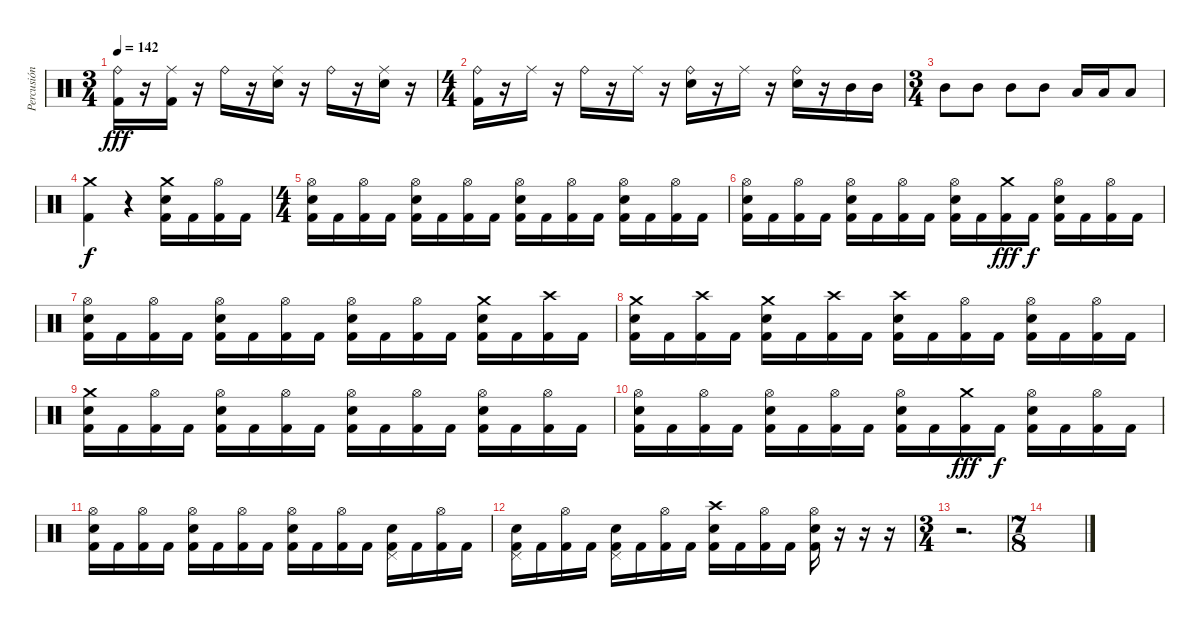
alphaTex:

\track ("Percusión" "Percusión") {instrument percussion}
\staff {score}
\articulation defaults
\ts (3 4)
\tempo 142
\clef neutral
\ks c
("Ride (bell)" "Kick (hit) 2").16{dy fff} r.16 ("Ride (middle)" "Kick (hit) 2").16 r.16 "Ride (bell)".16 r.16 ("Ride (middle)" "Electric Snare (hit)").16 r.16 "Ride (bell)".16 r.16 ("Ride (middle)" "Electric Snare (hit)").16 r.16 |
\ts (4 4)
("Ride (bell)" "Kick (hit) 2").16 r.16 "Ride (middle)".16 r.16 "Ride (bell)".16 r.16 "Ride (middle)".16 r.16 ("Ride (bell)" "Electric Snare (hit)").16 r.16 "Ride (middle)".16 r.16 ("Ride (bell)" "Electric Snare (hit)").16 r.16 "Mid Tom (hit)".16 "Mid Tom (hit)".16 |
\ts (3 4)
"Mid Tom (hit)".8 "Mid Tom (hit)".8 "Mid Tom (hit)".8 "Mid Tom (hit)".8 "Low Tom (hit)".16 "Low Tom (hit)".16 "Low Tom (hit)".8 |
("Crash medium (hit)" "Kick (hit) 2").4{dy f} r.4 ("Crash medium (hit)" "Electric Snare (hit)" "Kick (hit) 2").16 "Kick (hit) 2".16 ("Hi-Hat (open)" "Kick (hit) 2").16 "Kick (hit) 2".16 |
\ts (4 4)
("Hi-Hat (open)" "Electric Snare (hit)" "Kick (hit) 2").16 "Kick (hit) 2".16 ("Hi-Hat (open)" "Kick (hit) 2").16 "Kick (hit) 2".16 ("Hi-Hat (open)" "Electric Snare (hit)" "Kick (hit) 2").16 "Kick (hit) 2".16 ("Hi-Hat (open)" "Kick (hit) 2").16 "Kick (hit) 2".16 ("Hi-Hat (open)" "Electric Snare (hit)" "Kick (hit) 2").16 "Kick (hit) 2".16 ("Hi-Hat (open)" "Kick (hit) 2").16 "Kick (hit) 2".16 ("Hi-Hat (open)" "Electric Snare (hit)" "Kick (hit) 2").16 "Kick (hit) 2".16 ("Hi-Hat (open)" "Kick (hit) 2").16 "Kick (hit) 2".16 |
("Hi-Hat (open)" "Electric Snare (hit)" "Kick (hit) 2").16 "Kick (hit) 2".16 ("Hi-Hat (open)" "Kick (hit) 2").16 "Kick (hit) 2".16 ("Hi-Hat (open)" "Electric Snare (hit)" "Kick (hit) 2").16 "Kick (hit) 2".16 ("Hi-Hat (open)" "Kick (hit) 2").16 "Kick (hit) 2".16 ("Hi-Hat (open)" "Electric Snare (hit)" "Kick (hit) 2").16 "Kick (hit) 2".16 ("Crash medium (hit)" "Kick (hit) 2").16{dy fff} "Kick (hit) 2".16{dy f} ("Hi-Hat (open)" "Electric Snare (hit)" "Kick (hit) 2").16 "Kick (hit) 2".16 ("Hi-Hat (open)" "Kick (hit) 2").16 "Kick (hit) 2".16 |
("Hi-Hat (open)" "Electric Snare (hit)" "Kick (hit) 2").16 "Kick (hit) 2".16 ("Hi-Hat (open)" "Kick (hit) 2").16 "Kick (hit) 2".16 ("Hi-Hat (open)" "Electric Snare (hit)" "Kick (hit) 2").16 "Kick (hit) 2".16 ("Hi-Hat (open)" "Kick (hit) 2").16 "Kick (hit) 2".16 ("Hi-Hat (open)" "Electric Snare (hit)" "Kick (hit) 2").16 "Kick (hit) 2".16 ("Hi-Hat (open)" "Kick (hit) 2").16 "Kick (hit) 2".16 ("Crash medium (hit)" "Electric Snare (hit)" "Kick (hit) 2").16 "Kick (hit) 2".16 ("Crash high (hit)" "Kick (hit) 2").16 "Kick (hit) 2".16 |
("Crash medium (hit)" "Electric Snare (hit)" "Kick (hit) 2").16 "Kick (hit) 2".16 ("Crash high (hit)" "Kick (hit) 2").16 "Kick (hit) 2".16 ("Crash medium (hit)" "Electric Snare (hit)" "Kick (hit) 2").16 "Kick (hit) 2".16 ("Crash high (hit)" "Kick (hit) 2").16 "Kick (hit) 2".16 ("Crash high (hit)" "Electric Snare (hit)" "Kick (hit) 2").16 "Kick (hit) 2".16 ("Hi-Hat (open)" "Kick (hit) 2").16 "Kick (hit) 2".16 ("Hi-Hat (open)" "Electric Snare (hit)" "Kick (hit) 2").16 "Kick (hit) 2".16 ("Hi-Hat (open)" "Kick (hit) 2").16 "Kick (hit) 2".16 |
("Crash medium (hit)" "Electric Snare (hit)" "Kick (hit) 2").16 "Kick (hit) 2".16 ("Hi-Hat (open)" "Kick (hit) 2").16 "Kick (hit) 2".16 ("Hi-Hat (open)" "Electric Snare (hit)" "Kick (hit) 2").16 "Kick (hit) 2".16 ("Hi-Hat (open)" "Kick (hit) 2").16 "Kick (hit) 2".16 ("Hi-Hat (open)" "Electric Snare (hit)" "Kick (hit) 2").16 "Kick (hit) 2".16 ("Hi-Hat (open)" "Kick (hit) 2").16 "Kick (hit) 2".16 ("Hi-Hat (open)" "Electric Snare (hit)" "Kick (hit) 2").16 "Kick (hit) 2".16 ("Hi-Hat (open)" "Kick (hit) 2").16 "Kick (hit) 2".16 |
("Hi-Hat (open)" "Electric Snare (hit)" "Kick (hit) 2").16 "Kick (hit) 2".16 ("Hi-Hat (open)" "Kick (hit) 2").16 "Kick (hit) 2".16 ("Hi-Hat (open)" "Electric Snare (hit)" "Kick (hit) 2").16 "Kick (hit) 2".16 ("Hi-Hat (open)" "Kick (hit) 2").16 "Kick (hit) 2".16 ("Hi-Hat (open)" "Electric Snare (hit)" "Kick (hit) 2").16 "Kick (hit) 2".16 ("Crash medium (hit)" "Kick (hit) 2").16{dy fff} "Kick (hit) 2".16{dy f} ("Hi-Hat (open)" "Electric Snare (hit)" "Kick (hit) 2").16 "Kick (hit) 2".16 ("Hi-Hat (open)" "Kick (hit) 2").16 "Kick (hit) 2".16 |
("Hi-Hat (open)" "Electric Snare (hit)" "Kick (hit) 2").16 "Kick (hit) 2".16 ("Hi-Hat (open)" "Kick (hit) 2").16 "Kick (hit) 2".16 ("Hi-Hat (open)" "Electric Snare (hit)" "Kick (hit) 2").16 "Kick (hit) 2".16 ("Hi-Hat (open)" "Kick (hit) 2").16 "Kick (hit) 2".16 ("Hi-Hat (open)" "Electric Snare (hit)" "Kick (hit) 2").16 "Kick (hit) 2".16 ("Hi-Hat (open)" "Kick (hit) 2").16 "Kick (hit) 2".16 ("Pedal Hi-Hat (hit)" "Electric Snare (hit)" "Kick (hit) 2").16 "Kick (hit) 2".16 ("Hi-Hat (open)" "Kick (hit) 2").16 "Kick (hit) 2".16 |
("Pedal Hi-Hat (hit)" "Electric Snare (hit)" "Kick (hit) 2").16 "Kick (hit) 2".16 ("Hi-Hat (open)" "Kick (hit) 2").16 "Kick (hit) 2".16 ("Pedal Hi-Hat (hit)" "Electric Snare (hit)" "Kick (hit) 2").16 "Kick (hit) 2".16 ("Hi-Hat (open)" "Kick (hit) 2").16 "Kick (hit) 2".16 ("Crash high (hit)" "Electric Snare (hit)" "Kick (hit) 2").16 "Kick (hit) 2".16 ("Hi-Hat (open)" "Kick (hit) 2").16 "Kick (hit) 2".16 ("Hi-Hat (open)" "Electric Snare (hit)" "Kick (hit) 2").16 r.16 r.16 r.16 |
\ts (3 4)
r.2{d} |
\ts (7 8)
